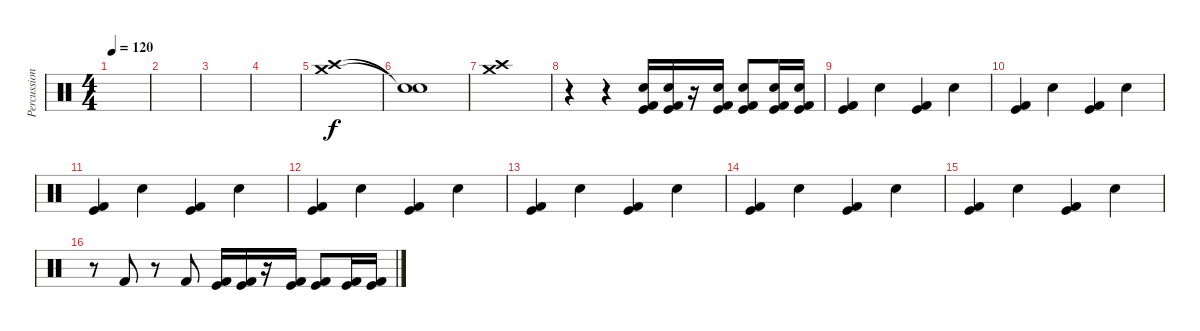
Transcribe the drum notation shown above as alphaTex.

\track ("Percussion" "Percussion") {instrument percussion}
\staff {score}
\articulation defaults
\ts (4 4)
\tempo 120
\clef neutral
\ks c
|
|
|
|
("Crash medium (hit)" "Crash high (hit)").1 |
("Snare (hit)"{t} "Snare (hit)"{t}).1 |
("Crash medium (hit)" "Crash high (hit)").1 |
r.4 r.4 ("Snare (hit) 2" "Kick (hit) 2" "Kick (hit)").16 ("Snare (hit) 2" "Kick (hit) 2" "Kick (hit)").16 r.16 ("Snare (hit) 2" "Kick (hit) 2" "Kick (hit)").16 ("Snare (hit) 2" "Kick (hit) 2" "Kick (hit)").8 ("Snare (hit) 2" "Kick (hit) 2" "Kick (hit)").16 ("Snare (hit) 2" "Kick (hit) 2" "Kick (hit)").16 |
("Kick (hit)" "Kick (hit) 2").4 "Snare (hit) 2".4 ("Kick (hit) 2" "Kick (hit)").4 "Snare (hit) 2".4 |
("Kick (hit)" "Kick (hit) 2").4 "Snare (hit) 2".4 ("Kick (hit) 2" "Kick (hit)").4 "Snare (hit) 2".4 |
("Kick (hit)" "Kick (hit) 2").4 "Snare (hit) 2".4 ("Kick (hit) 2" "Kick (hit)").4 "Snare (hit) 2".4 |
("Kick (hit)" "Kick (hit) 2").4 "Snare (hit) 2".4 ("Kick (hit) 2" "Kick (hit)").4 "Snare (hit) 2".4 |
("Kick (hit)" "Kick (hit) 2").4 "Snare (hit) 2".4 ("Kick (hit) 2" "Kick (hit)").4 "Snare (hit) 2".4 |
("Kick (hit)" "Kick (hit) 2").4 "Snare (hit) 2".4 ("Kick (hit) 2" "Kick (hit)").4 "Snare (hit) 2".4 |
("Kick (hit)" "Kick (hit) 2").4 "Snare (hit) 2".4 ("Kick (hit) 2" "Kick (hit)").4 "Snare (hit) 2".4 |
r.8 "Kick (hit) 2".8 r.8 "Kick (hit) 2".8 ("Kick (hit) 2" "Kick (hit)").16 ("Kick (hit) 2" "Kick (hit)").16 r.16 ("Kick (hit) 2" "Kick (hit)").16 ("Kick (hit) 2" "Kick (hit)").8 ("Kick (hit) 2" "Kick (hit)").16 ("Kick (hit) 2" "Kick (hit)").16
